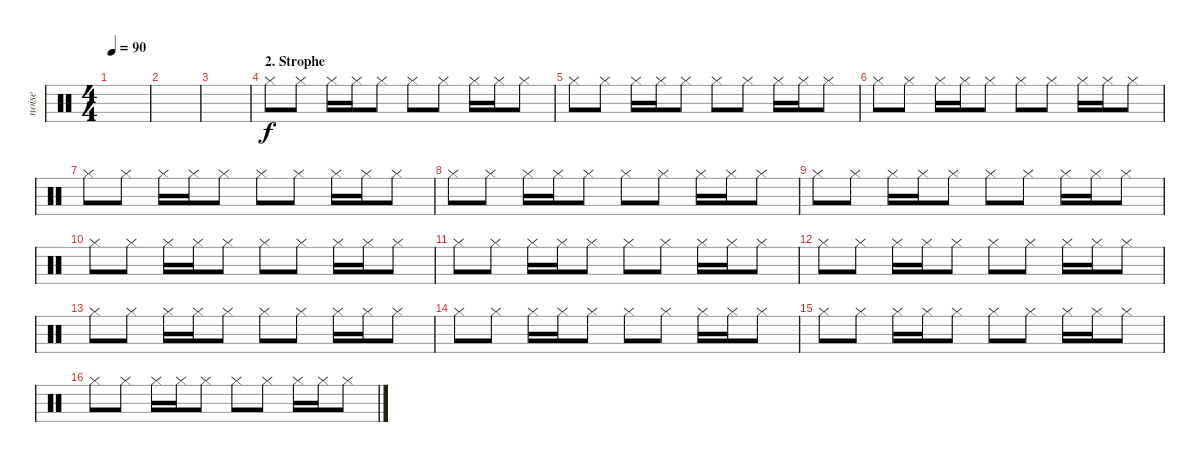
\track ("noise" "noise") {instrument percussion}
\staff {score}
\articulation defaults
\ts (4 4)
\tempo 90
\clef neutral
\ks c
|
|
|
\section ("" "2. Strophe")
"Hi-Hat (closed)".8 "Hi-Hat (closed)".8 "Hi-Hat (closed)".16 "Hi-Hat (closed)".16 "Hi-Hat (closed)".8 "Hi-Hat (closed)".8 "Hi-Hat (closed)".8 "Hi-Hat (closed)".16 "Hi-Hat (closed)".16 "Hi-Hat (closed)".8 |
"Hi-Hat (closed)".8 "Hi-Hat (closed)".8 "Hi-Hat (closed)".16 "Hi-Hat (closed)".16 "Hi-Hat (closed)".8 "Hi-Hat (closed)".8 "Hi-Hat (closed)".8 "Hi-Hat (closed)".16 "Hi-Hat (closed)".16 "Hi-Hat (closed)".8 |
"Hi-Hat (closed)".8 "Hi-Hat (closed)".8 "Hi-Hat (closed)".16 "Hi-Hat (closed)".16 "Hi-Hat (closed)".8 "Hi-Hat (closed)".8 "Hi-Hat (closed)".8 "Hi-Hat (closed)".16 "Hi-Hat (closed)".16 "Hi-Hat (closed)".8 |
"Hi-Hat (closed)".8 "Hi-Hat (closed)".8 "Hi-Hat (closed)".16 "Hi-Hat (closed)".16 "Hi-Hat (closed)".8 "Hi-Hat (closed)".8 "Hi-Hat (closed)".8 "Hi-Hat (closed)".16 "Hi-Hat (closed)".16 "Hi-Hat (closed)".8 |
"Hi-Hat (closed)".8 "Hi-Hat (closed)".8 "Hi-Hat (closed)".16 "Hi-Hat (closed)".16 "Hi-Hat (closed)".8 "Hi-Hat (closed)".8 "Hi-Hat (closed)".8 "Hi-Hat (closed)".16 "Hi-Hat (closed)".16 "Hi-Hat (closed)".8 |
"Hi-Hat (closed)".8 "Hi-Hat (closed)".8 "Hi-Hat (closed)".16 "Hi-Hat (closed)".16 "Hi-Hat (closed)".8 "Hi-Hat (closed)".8 "Hi-Hat (closed)".8 "Hi-Hat (closed)".16 "Hi-Hat (closed)".16 "Hi-Hat (closed)".8 |
"Hi-Hat (closed)".8 "Hi-Hat (closed)".8 "Hi-Hat (closed)".16 "Hi-Hat (closed)".16 "Hi-Hat (closed)".8 "Hi-Hat (closed)".8 "Hi-Hat (closed)".8 "Hi-Hat (closed)".16 "Hi-Hat (closed)".16 "Hi-Hat (closed)".8 |
"Hi-Hat (closed)".8 "Hi-Hat (closed)".8 "Hi-Hat (closed)".16 "Hi-Hat (closed)".16 "Hi-Hat (closed)".8 "Hi-Hat (closed)".8 "Hi-Hat (closed)".8 "Hi-Hat (closed)".16 "Hi-Hat (closed)".16 "Hi-Hat (closed)".8 |
"Hi-Hat (closed)".8 "Hi-Hat (closed)".8 "Hi-Hat (closed)".16 "Hi-Hat (closed)".16 "Hi-Hat (closed)".8 "Hi-Hat (closed)".8 "Hi-Hat (closed)".8 "Hi-Hat (closed)".16 "Hi-Hat (closed)".16 "Hi-Hat (closed)".8 |
"Hi-Hat (closed)".8 "Hi-Hat (closed)".8 "Hi-Hat (closed)".16 "Hi-Hat (closed)".16 "Hi-Hat (closed)".8 "Hi-Hat (closed)".8 "Hi-Hat (closed)".8 "Hi-Hat (closed)".16 "Hi-Hat (closed)".16 "Hi-Hat (closed)".8 |
"Hi-Hat (closed)".8 "Hi-Hat (closed)".8 "Hi-Hat (closed)".16 "Hi-Hat (closed)".16 "Hi-Hat (closed)".8 "Hi-Hat (closed)".8 "Hi-Hat (closed)".8 "Hi-Hat (closed)".16 "Hi-Hat (closed)".16 "Hi-Hat (closed)".8 |
"Hi-Hat (closed)".8 "Hi-Hat (closed)".8 "Hi-Hat (closed)".16 "Hi-Hat (closed)".16 "Hi-Hat (closed)".8 "Hi-Hat (closed)".8 "Hi-Hat (closed)".8 "Hi-Hat (closed)".16 "Hi-Hat (closed)".16 "Hi-Hat (closed)".8 |
"Hi-Hat (closed)".8 "Hi-Hat (closed)".8 "Hi-Hat (closed)".16 "Hi-Hat (closed)".16 "Hi-Hat (closed)".8 "Hi-Hat (closed)".8 "Hi-Hat (closed)".8 "Hi-Hat (closed)".16 "Hi-Hat (closed)".16 "Hi-Hat (closed)".8
